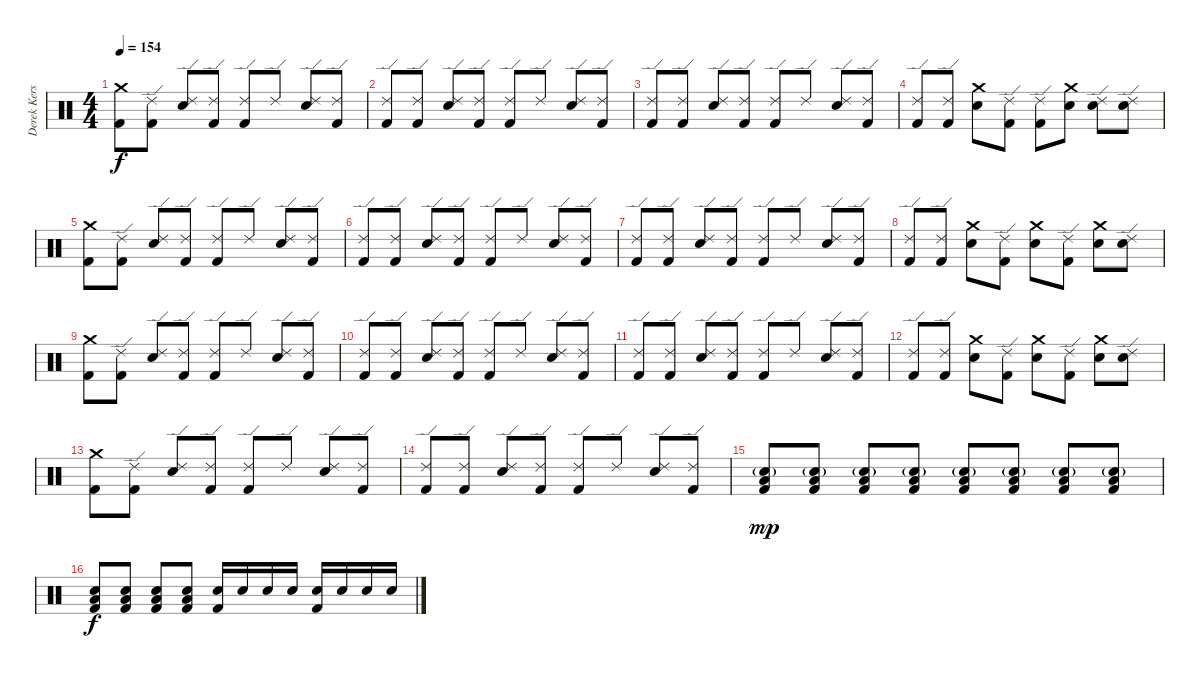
\track ("Derek Kerswill" "Derek Kers") {instrument percussion}
\staff {score}
\articulation defaults
\ts (4 4)
\tempo 154
\clef neutral
\ks c
("Crash medium (hit)" "Kick (hit) 2").8{dy f} ("Ride (edge) 2" "Kick (hit) 2").8 ("Ride (edge) 2" "Electric Snare (hit)").8 ("Ride (edge) 2" "Kick (hit) 2").8 ("Ride (edge) 2" "Kick (hit) 2").8 "Ride (edge) 2".8 ("Ride (edge) 2" "Electric Snare (hit)").8 ("Ride (edge) 2" "Kick (hit) 2").8 |
("Ride (edge) 2" "Kick (hit) 2").8 ("Ride (edge) 2" "Kick (hit) 2").8 ("Ride (edge) 2" "Electric Snare (hit)").8 ("Ride (edge) 2" "Kick (hit) 2").8 ("Ride (edge) 2" "Kick (hit) 2").8 "Ride (edge) 2".8 ("Ride (edge) 2" "Electric Snare (hit)").8 ("Ride (edge) 2" "Kick (hit) 2").8 |
("Ride (edge) 2" "Kick (hit) 2").8 ("Ride (edge) 2" "Kick (hit) 2").8 ("Ride (edge) 2" "Electric Snare (hit)").8 ("Ride (edge) 2" "Kick (hit) 2").8 ("Ride (edge) 2" "Kick (hit) 2").8 "Ride (edge) 2".8 ("Ride (edge) 2" "Electric Snare (hit)").8 ("Ride (edge) 2" "Kick (hit) 2").8 |
("Ride (edge) 2" "Kick (hit) 2").8 ("Ride (edge) 2" "Kick (hit) 2").8 ("Crash medium (hit)" "Electric Snare (hit)").8 ("Ride (edge) 2" "Kick (hit) 2").8 ("Ride (edge) 2" "Kick (hit) 2").8 ("Crash medium (hit)" "Electric Snare (hit)").8 ("Ride (edge) 2" "Electric Snare (hit)").8 ("Ride (edge) 2" "Electric Snare (hit)").8 |
("Crash medium (hit)" "Kick (hit) 2").8 ("Ride (edge) 2" "Kick (hit) 2").8 ("Ride (edge) 2" "Electric Snare (hit)").8 ("Ride (edge) 2" "Kick (hit) 2").8 ("Ride (edge) 2" "Kick (hit) 2").8 "Ride (edge) 2".8 ("Ride (edge) 2" "Electric Snare (hit)").8 ("Ride (edge) 2" "Kick (hit) 2").8 |
("Ride (edge) 2" "Kick (hit) 2").8 ("Ride (edge) 2" "Kick (hit) 2").8 ("Ride (edge) 2" "Electric Snare (hit)").8 ("Ride (edge) 2" "Kick (hit) 2").8 ("Ride (edge) 2" "Kick (hit) 2").8 "Ride (edge) 2".8 ("Ride (edge) 2" "Electric Snare (hit)").8 ("Ride (edge) 2" "Kick (hit) 2").8 |
("Ride (edge) 2" "Kick (hit) 2").8 ("Ride (edge) 2" "Kick (hit) 2").8 ("Ride (edge) 2" "Electric Snare (hit)").8 ("Ride (edge) 2" "Kick (hit) 2").8 ("Ride (edge) 2" "Kick (hit) 2").8 "Ride (edge) 2".8 ("Ride (edge) 2" "Electric Snare (hit)").8 ("Ride (edge) 2" "Kick (hit) 2").8 |
("Ride (edge) 2" "Kick (hit) 2").8 ("Ride (edge) 2" "Kick (hit) 2").8 ("Crash medium (hit)" "Electric Snare (hit)").8 ("Ride (edge) 2" "Kick (hit) 2").8 ("Crash medium (hit)" "Electric Snare (hit)").8 ("Ride (edge) 2" "Kick (hit) 2").8 ("Crash medium (hit)" "Electric Snare (hit)").8 ("Ride (edge) 2" "Electric Snare (hit)").8 |
("Crash medium (hit)" "Kick (hit) 2").8 ("Ride (edge) 2" "Kick (hit) 2").8 ("Ride (edge) 2" "Electric Snare (hit)").8 ("Ride (edge) 2" "Kick (hit) 2").8 ("Ride (edge) 2" "Kick (hit) 2").8 "Ride (edge) 2".8 ("Ride (edge) 2" "Electric Snare (hit)").8 ("Ride (edge) 2" "Kick (hit) 2").8 |
("Ride (edge) 2" "Kick (hit) 2").8 ("Ride (edge) 2" "Kick (hit) 2").8 ("Ride (edge) 2" "Electric Snare (hit)").8 ("Ride (edge) 2" "Kick (hit) 2").8 ("Ride (edge) 2" "Kick (hit) 2").8 "Ride (edge) 2".8 ("Ride (edge) 2" "Electric Snare (hit)").8 ("Ride (edge) 2" "Kick (hit) 2").8 |
("Ride (edge) 2" "Kick (hit) 2").8 ("Ride (edge) 2" "Kick (hit) 2").8 ("Ride (edge) 2" "Electric Snare (hit)").8 ("Ride (edge) 2" "Kick (hit) 2").8 ("Ride (edge) 2" "Kick (hit) 2").8 "Ride (edge) 2".8 ("Ride (edge) 2" "Electric Snare (hit)").8 ("Ride (edge) 2" "Kick (hit) 2").8 |
("Ride (edge) 2" "Kick (hit) 2").8 ("Ride (edge) 2" "Kick (hit) 2").8 ("Crash medium (hit)" "Electric Snare (hit)").8 ("Ride (edge) 2" "Kick (hit) 2").8 ("Crash medium (hit)" "Electric Snare (hit)").8 ("Ride (edge) 2" "Kick (hit) 2").8 ("Crash medium (hit)" "Electric Snare (hit)").8 ("Ride (edge) 2" "Electric Snare (hit)").8 |
("Crash medium (hit)" "Kick (hit) 2").8 ("Ride (edge) 2" "Kick (hit) 2").8 ("Ride (edge) 2" "Electric Snare (hit)").8 ("Ride (edge) 2" "Kick (hit) 2").8 ("Ride (edge) 2" "Kick (hit) 2").8 "Ride (edge) 2".8 ("Ride (edge) 2" "Electric Snare (hit)").8 ("Ride (edge) 2" "Kick (hit) 2").8 |
("Ride (edge) 2" "Kick (hit) 2").8 ("Ride (edge) 2" "Kick (hit) 2").8 ("Ride (edge) 2" "Electric Snare (hit)").8 ("Ride (edge) 2" "Kick (hit) 2").8 ("Ride (edge) 2" "Kick (hit) 2").8 "Ride (edge) 2".8 ("Ride (edge) 2" "Electric Snare (hit)").8 ("Ride (edge) 2" "Kick (hit) 2").8 |
("Electric Snare (hit)"{g} "Low Floor Tom (hit)" "Kick (hit) 2").8{dy mp} ("Electric Snare (hit)"{g} "Low Floor Tom (hit)" "Kick (hit) 2").8 ("Electric Snare (hit)"{g} "Low Floor Tom (hit)" "Kick (hit) 2").8 ("Electric Snare (hit)"{g} "Low Floor Tom (hit)" "Kick (hit) 2").8 ("Electric Snare (hit)"{g} "Low Floor Tom (hit)" "Kick (hit) 2").8 ("Electric Snare (hit)"{g} "Low Floor Tom (hit)" "Kick (hit) 2").8 ("Electric Snare (hit)"{g} "Low Floor Tom (hit)" "Kick (hit) 2").8 ("Electric Snare (hit)"{g} "Low Floor Tom (hit)" "Kick (hit) 2").8 |
("Electric Snare (hit)" "Low Floor Tom (hit)" "Kick (hit) 2").8{dy f} ("Electric Snare (hit)" "Low Floor Tom (hit)" "Kick (hit) 2").8 ("Electric Snare (hit)" "Low Floor Tom (hit)" "Kick (hit) 2").8 ("Electric Snare (hit)" "Low Floor Tom (hit)" "Kick (hit) 2").8 ("Electric Snare (hit)" "Kick (hit) 2").16 "Electric Snare (hit)".16 "Electric Snare (hit)".16 "Electric Snare (hit)".16 ("Electric Snare (hit)" "Kick (hit) 2").16 "Electric Snare (hit)".16 "Electric Snare (hit)".16 "Electric Snare (hit)".16
